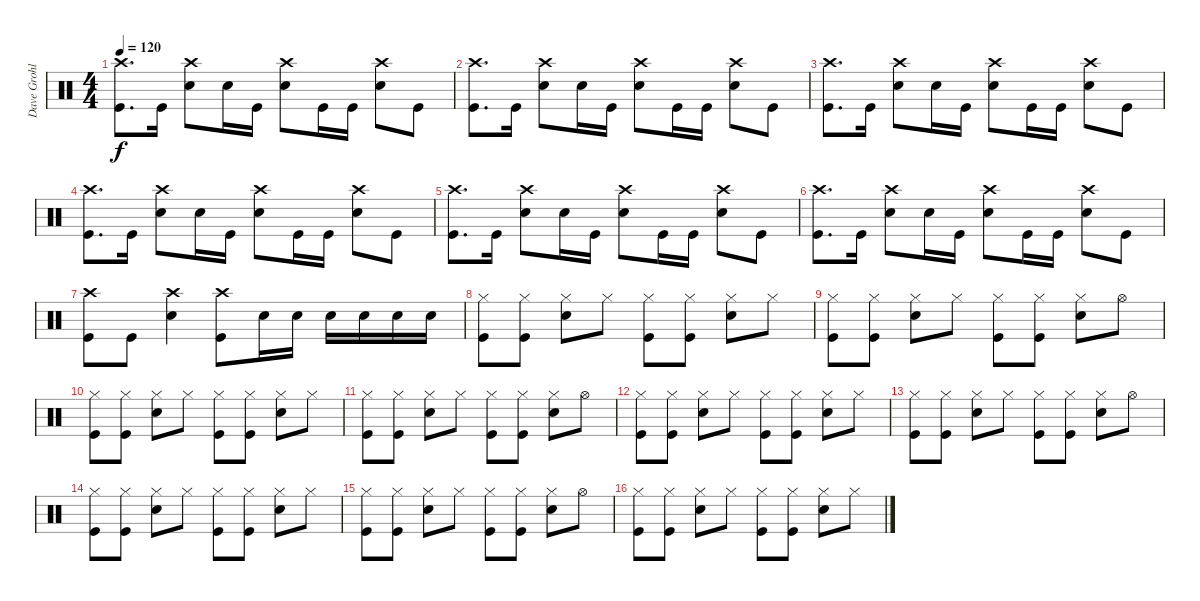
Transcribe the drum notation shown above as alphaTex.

\track ("Dave Grohl - Drums" "Dave Grohl") {instrument percussion}
\staff {score}
\articulation defaults
\ts (4 4)
\tempo 120
\clef neutral
\ks c
("Crash high (hit)" "Kick (hit)").8{d dy f} "Kick (hit)".16 ("Crash high (hit)" "Snare (hit) 2").8 "Snare (hit) 2".16 "Kick (hit)".16 ("Crash high (hit)" "Snare (hit) 2").8 "Kick (hit)".16 "Kick (hit)".16 ("Crash high (hit)" "Snare (hit) 2").8 "Kick (hit)".8 |
("Crash high (hit)" "Kick (hit)").8{d} "Kick (hit)".16 ("Crash high (hit)" "Snare (hit) 2").8 "Snare (hit) 2".16 "Kick (hit)".16 ("Crash high (hit)" "Snare (hit) 2").8 "Kick (hit)".16 "Kick (hit)".16 ("Crash high (hit)" "Snare (hit) 2").8 "Kick (hit)".8 |
("Crash high (hit)" "Kick (hit)").8{d} "Kick (hit)".16 ("Crash high (hit)" "Snare (hit) 2").8 "Snare (hit) 2".16 "Kick (hit)".16 ("Crash high (hit)" "Snare (hit) 2").8 "Kick (hit)".16 "Kick (hit)".16 ("Crash high (hit)" "Snare (hit) 2").8 "Kick (hit)".8 |
("Crash high (hit)" "Kick (hit)").8{d} "Kick (hit)".16 ("Crash high (hit)" "Snare (hit) 2").8 "Snare (hit) 2".16 "Kick (hit)".16 ("Crash high (hit)" "Snare (hit) 2").8 "Kick (hit)".16 "Kick (hit)".16 ("Crash high (hit)" "Snare (hit) 2").8 "Kick (hit)".8 |
("Crash high (hit)" "Kick (hit)").8{d} "Kick (hit)".16 ("Crash high (hit)" "Snare (hit) 2").8 "Snare (hit) 2".16 "Kick (hit)".16 ("Crash high (hit)" "Snare (hit) 2").8 "Kick (hit)".16 "Kick (hit)".16 ("Crash high (hit)" "Snare (hit) 2").8 "Kick (hit)".8 |
("Crash high (hit)" "Kick (hit)").8{d} "Kick (hit)".16 ("Crash high (hit)" "Snare (hit) 2").8 "Snare (hit) 2".16 "Kick (hit)".16 ("Crash high (hit)" "Snare (hit) 2").8 "Kick (hit)".16 "Kick (hit)".16 ("Crash high (hit)" "Snare (hit) 2").8 "Kick (hit)".8 |
("Crash high (hit)" "Kick (hit)").8 "Kick (hit)".8 ("Crash high (hit)" "Snare (hit) 2").4 ("Crash high (hit)" "Kick (hit)").8 "Snare (hit) 2".16 "Snare (hit) 2".16 "Snare (hit) 2".16 "Snare (hit) 2".16 "Snare (hit) 2".16 "Snare (hit) 2".16 |
("Hi-Hat (closed)" "Kick (hit)").8 ("Hi-Hat (closed)" "Kick (hit)").8 ("Hi-Hat (closed)" "Snare (hit) 2").8 "Hi-Hat (closed)".8 ("Hi-Hat (closed)" "Kick (hit)").8 ("Hi-Hat (closed)" "Kick (hit)").8 ("Hi-Hat (closed)" "Snare (hit) 2").8 "Hi-Hat (closed)".8 |
("Hi-Hat (closed)" "Kick (hit)").8 ("Hi-Hat (closed)" "Kick (hit)").8 ("Hi-Hat (closed)" "Snare (hit) 2").8 "Hi-Hat (closed)".8 ("Hi-Hat (closed)" "Kick (hit)").8 ("Hi-Hat (closed)" "Kick (hit)").8 ("Hi-Hat (closed)" "Snare (hit) 2").8 "Hi-Hat (open)".8 |
("Hi-Hat (closed)" "Kick (hit)").8 ("Hi-Hat (closed)" "Kick (hit)").8 ("Hi-Hat (closed)" "Snare (hit) 2").8 "Hi-Hat (closed)".8 ("Hi-Hat (closed)" "Kick (hit)").8 ("Hi-Hat (closed)" "Kick (hit)").8 ("Hi-Hat (closed)" "Snare (hit) 2").8 "Hi-Hat (closed)".8 |
("Hi-Hat (closed)" "Kick (hit)").8 ("Hi-Hat (closed)" "Kick (hit)").8 ("Hi-Hat (closed)" "Snare (hit) 2").8 "Hi-Hat (closed)".8 ("Hi-Hat (closed)" "Kick (hit)").8 ("Hi-Hat (closed)" "Kick (hit)").8 ("Hi-Hat (closed)" "Snare (hit) 2").8 "Hi-Hat (open)".8 |
("Hi-Hat (closed)" "Kick (hit)").8 ("Hi-Hat (closed)" "Kick (hit)").8 ("Hi-Hat (closed)" "Snare (hit) 2").8 "Hi-Hat (closed)".8 ("Hi-Hat (closed)" "Kick (hit)").8 ("Hi-Hat (closed)" "Kick (hit)").8 ("Hi-Hat (closed)" "Snare (hit) 2").8 "Hi-Hat (closed)".8 |
("Hi-Hat (closed)" "Kick (hit)").8 ("Hi-Hat (closed)" "Kick (hit)").8 ("Hi-Hat (closed)" "Snare (hit) 2").8 "Hi-Hat (closed)".8 ("Hi-Hat (closed)" "Kick (hit)").8 ("Hi-Hat (closed)" "Kick (hit)").8 ("Hi-Hat (closed)" "Snare (hit) 2").8 "Hi-Hat (open)".8 |
("Hi-Hat (closed)" "Kick (hit)").8 ("Hi-Hat (closed)" "Kick (hit)").8 ("Hi-Hat (closed)" "Snare (hit) 2").8 "Hi-Hat (closed)".8 ("Hi-Hat (closed)" "Kick (hit)").8 ("Hi-Hat (closed)" "Kick (hit)").8 ("Hi-Hat (closed)" "Snare (hit) 2").8 "Hi-Hat (closed)".8 |
("Hi-Hat (closed)" "Kick (hit)").8 ("Hi-Hat (closed)" "Kick (hit)").8 ("Hi-Hat (closed)" "Snare (hit) 2").8 "Hi-Hat (closed)".8 ("Hi-Hat (closed)" "Kick (hit)").8 ("Hi-Hat (closed)" "Kick (hit)").8 ("Hi-Hat (closed)" "Snare (hit) 2").8 "Hi-Hat (open)".8 |
("Hi-Hat (closed)" "Kick (hit)").8 ("Hi-Hat (closed)" "Kick (hit)").8 ("Hi-Hat (closed)" "Snare (hit) 2").8 "Hi-Hat (closed)".8 ("Hi-Hat (closed)" "Kick (hit)").8 ("Hi-Hat (closed)" "Kick (hit)").8 ("Hi-Hat (closed)" "Snare (hit) 2").8 "Hi-Hat (closed)".8
